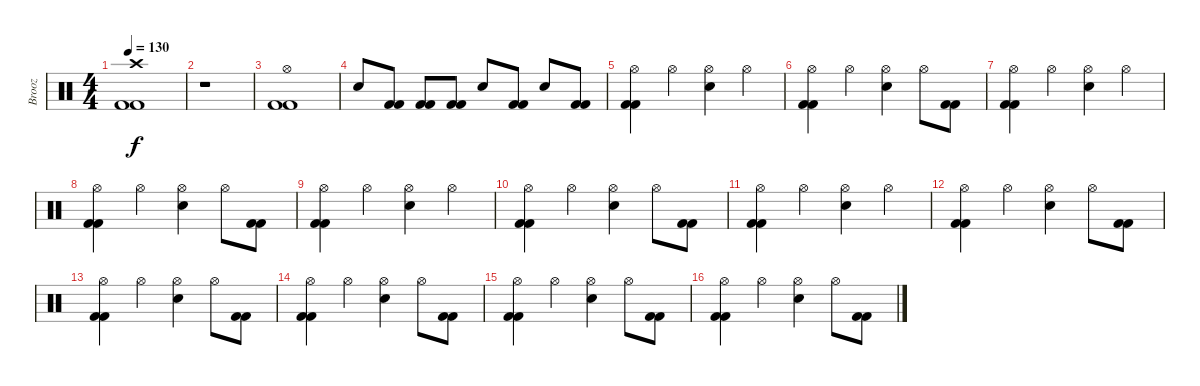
\track ("Brooz" "Brooz") {instrument percussion}
\staff {score}
\articulation defaults
\ts (4 4)
\tempo 130
\clef neutral
\ks c
("Crash high (hit)" "Kick (hit) 2" "Kick (hit) 2").1{dy f} |
r.1 |
("Hi-Hat (open)" "Kick (hit) 2" "Kick (hit) 2").1 |
"Snare (hit) 2".8 ("Kick (hit) 2" "Kick (hit) 2").8 ("Kick (hit) 2" "Kick (hit) 2").8 ("Kick (hit) 2" "Kick (hit) 2").8 "Snare (hit) 2".8 ("Kick (hit) 2" "Kick (hit) 2").8 "Snare (hit) 2".8 ("Kick (hit) 2" "Kick (hit) 2").8 |
("Hi-Hat (open)" "Kick (hit) 2" "Kick (hit) 2").4 "Hi-Hat (open)".4 ("Hi-Hat (open)" "Snare (hit) 2").4 "Hi-Hat (open)".4 |
("Hi-Hat (open)" "Kick (hit) 2" "Kick (hit) 2").4 "Hi-Hat (open)".4 ("Hi-Hat (open)" "Snare (hit) 2").4 "Hi-Hat (open)".8 ("Kick (hit) 2" "Kick (hit) 2").8 |
("Hi-Hat (open)" "Kick (hit) 2" "Kick (hit) 2").4 "Hi-Hat (open)".4 ("Hi-Hat (open)" "Snare (hit) 2").4 "Hi-Hat (open)".4 |
("Hi-Hat (open)" "Kick (hit) 2" "Kick (hit) 2").4 "Hi-Hat (open)".4 ("Hi-Hat (open)" "Snare (hit) 2").4 "Hi-Hat (open)".8 ("Kick (hit) 2" "Kick (hit) 2").8 |
("Hi-Hat (open)" "Kick (hit) 2" "Kick (hit) 2").4 "Hi-Hat (open)".4 ("Hi-Hat (open)" "Snare (hit) 2").4 "Hi-Hat (open)".4 |
("Hi-Hat (open)" "Kick (hit) 2" "Kick (hit) 2").4 "Hi-Hat (open)".4 ("Hi-Hat (open)" "Snare (hit) 2").4 "Hi-Hat (open)".8 ("Kick (hit) 2" "Kick (hit) 2").8 |
("Hi-Hat (open)" "Kick (hit) 2" "Kick (hit) 2").4 "Hi-Hat (open)".4 ("Hi-Hat (open)" "Snare (hit) 2").4 "Hi-Hat (open)".4 |
("Hi-Hat (open)" "Kick (hit) 2" "Kick (hit) 2").4 "Hi-Hat (open)".4 ("Hi-Hat (open)" "Snare (hit) 2").4 "Hi-Hat (open)".8 ("Kick (hit) 2" "Kick (hit) 2").8 |
("Hi-Hat (open)" "Kick (hit) 2" "Kick (hit) 2").4 "Hi-Hat (open)".4 ("Hi-Hat (open)" "Snare (hit) 2").4 "Hi-Hat (open)".8 ("Kick (hit) 2" "Kick (hit) 2").8 |
("Hi-Hat (open)" "Kick (hit) 2" "Kick (hit) 2").4 "Hi-Hat (open)".4 ("Hi-Hat (open)" "Snare (hit) 2").4 "Hi-Hat (open)".8 ("Kick (hit) 2" "Kick (hit) 2").8 |
("Hi-Hat (open)" "Kick (hit) 2" "Kick (hit) 2").4 "Hi-Hat (open)".4 ("Hi-Hat (open)" "Snare (hit) 2").4 "Hi-Hat (open)".8 ("Kick (hit) 2" "Kick (hit) 2").8 |
("Hi-Hat (open)" "Kick (hit) 2" "Kick (hit) 2").4 "Hi-Hat (open)".4 ("Hi-Hat (open)" "Snare (hit) 2").4 "Hi-Hat (open)".8 ("Kick (hit) 2" "Kick (hit) 2").8
